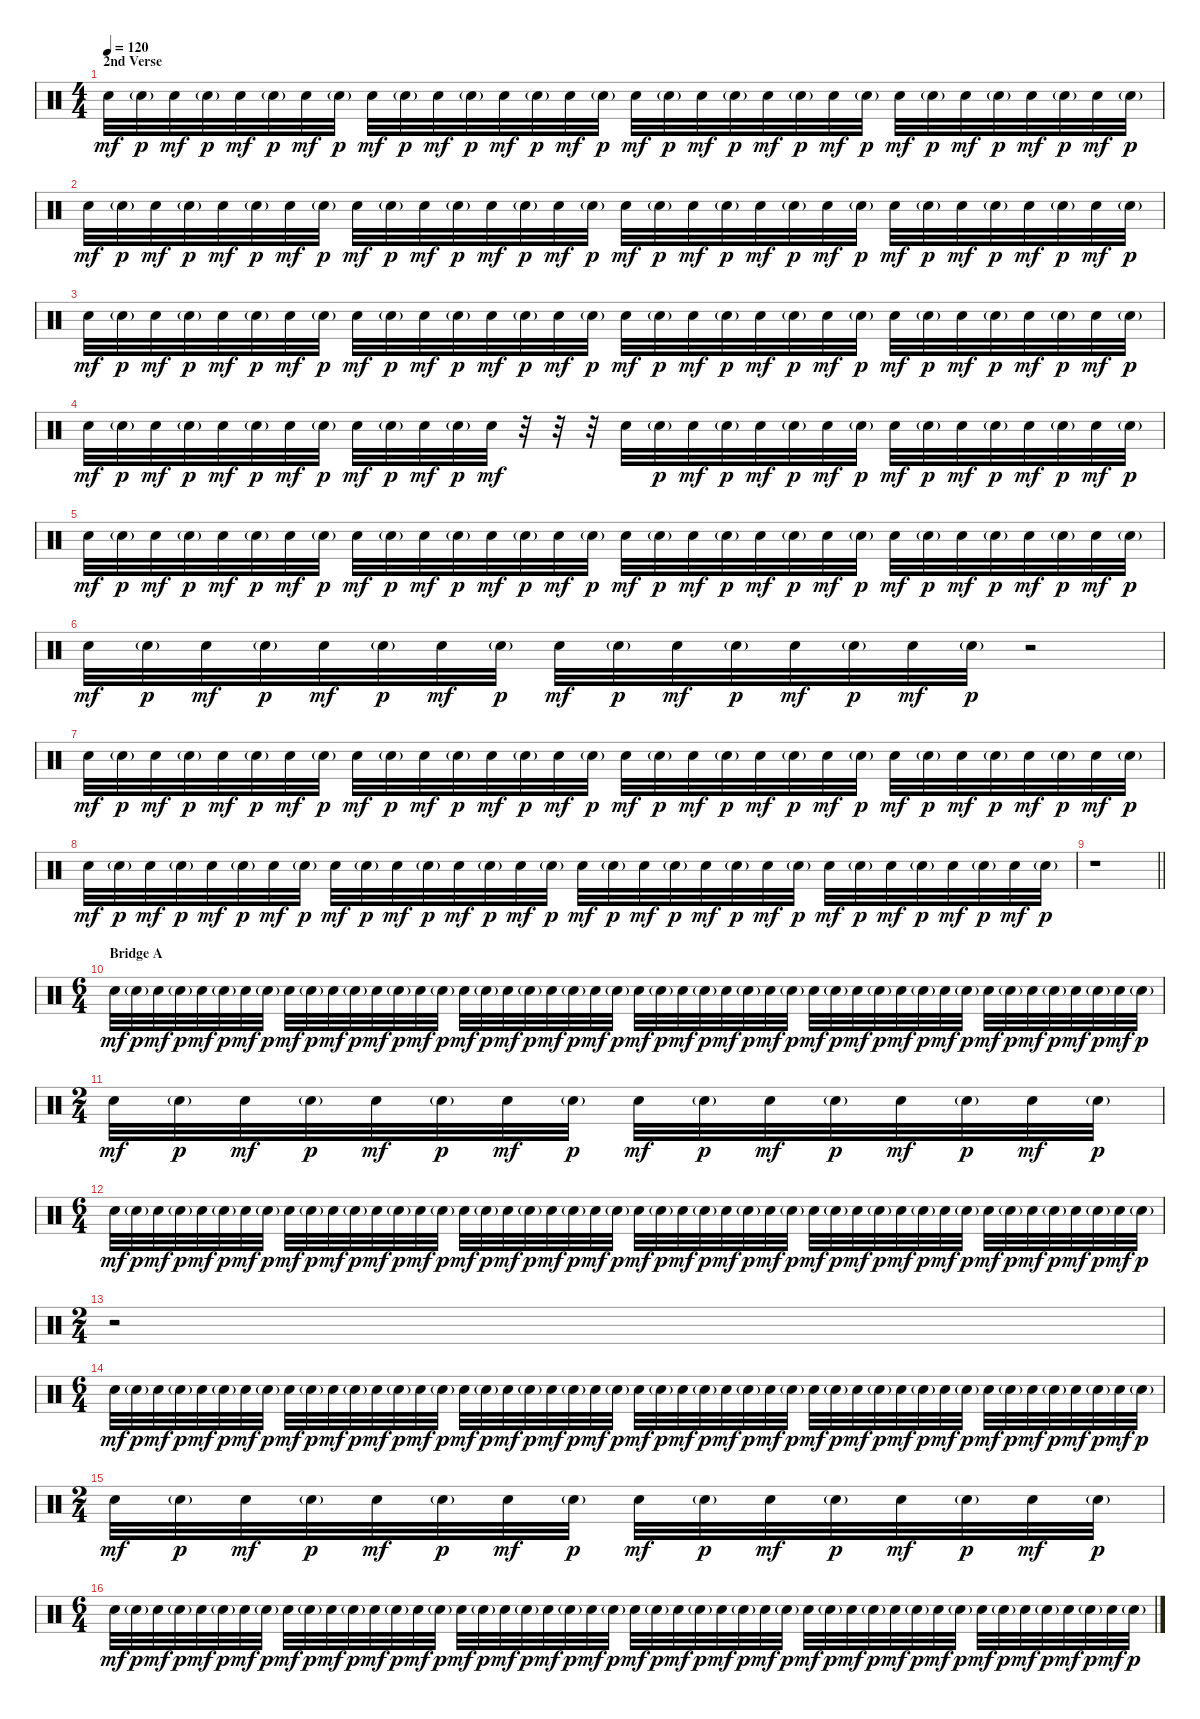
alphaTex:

\track "" {instrument percussion}
\staff {score}
\articulation defaults
\ts (4 4)
\section ("" "2nd Verse")
\tempo 120
\clef neutral
\ks c "Electric Snare (hit)".32{dy mf} "Electric Snare (hit)"{g}.32{dy p} "Electric Snare (hit)".32{dy mf} "Electric Snare (hit)"{g}.32{dy p} "Electric Snare (hit)".32{dy mf} "Electric Snare (hit)"{g}.32{dy p} "Electric Snare (hit)".32{dy mf} "Electric Snare (hit)"{g}.32{dy p} "Electric Snare (hit)".32{dy mf} "Electric Snare (hit)"{g}.32{dy p} "Electric Snare (hit)".32{dy mf} "Electric Snare (hit)"{g}.32{dy p} "Electric Snare (hit)".32{dy mf} "Electric Snare (hit)"{g}.32{dy p} "Electric Snare (hit)".32{dy mf} "Electric Snare (hit)"{g}.32{dy p} "Electric Snare (hit)".32{dy mf} "Electric Snare (hit)"{g}.32{dy p} "Electric Snare (hit)".32{dy mf} "Electric Snare (hit)"{g}.32{dy p} "Electric Snare (hit)".32{dy mf} "Electric Snare (hit)"{g}.32{dy p} "Electric Snare (hit)".32{dy mf} "Electric Snare (hit)"{g}.32{dy p} "Electric Snare (hit)".32{dy mf} "Electric Snare (hit)"{g}.32{dy p} "Electric Snare (hit)".32{dy mf} "Electric Snare (hit)"{g}.32{dy p} "Electric Snare (hit)".32{dy mf} "Electric Snare (hit)"{g}.32{dy p} "Electric Snare (hit)".32{dy mf} "Electric Snare (hit)"{g}.32{dy p}
|
"Electric Snare (hit)".32{dy mf} "Electric Snare (hit)"{g}.32{dy p} "Electric Snare (hit)".32{dy mf} "Electric Snare (hit)"{g}.32{dy p} "Electric Snare (hit)".32{dy mf} "Electric Snare (hit)"{g}.32{dy p} "Electric Snare (hit)".32{dy mf} "Electric Snare (hit)"{g}.32{dy p} "Electric Snare (hit)".32{dy mf} "Electric Snare (hit)"{g}.32{dy p} "Electric Snare (hit)".32{dy mf} "Electric Snare (hit)"{g}.32{dy p} "Electric Snare (hit)".32{dy mf} "Electric Snare (hit)"{g}.32{dy p} "Electric Snare (hit)".32{dy mf} "Electric Snare (hit)"{g}.32{dy p} "Electric Snare (hit)".32{dy mf} "Electric Snare (hit)"{g}.32{dy p} "Electric Snare (hit)".32{dy mf} "Electric Snare (hit)"{g}.32{dy p} "Electric Snare (hit)".32{dy mf} "Electric Snare (hit)"{g}.32{dy p} "Electric Snare (hit)".32{dy mf} "Electric Snare (hit)"{g}.32{dy p} "Electric Snare (hit)".32{dy mf} "Electric Snare (hit)"{g}.32{dy p} "Electric Snare (hit)".32{dy mf} "Electric Snare (hit)"{g}.32{dy p} "Electric Snare (hit)".32{dy mf} "Electric Snare (hit)"{g}.32{dy p} "Electric Snare (hit)".32{dy mf} "Electric Snare (hit)"{g}.32{dy p} |
"Electric Snare (hit)".32{dy mf} "Electric Snare (hit)"{g}.32{dy p} "Electric Snare (hit)".32{dy mf} "Electric Snare (hit)"{g}.32{dy p} "Electric Snare (hit)".32{dy mf} "Electric Snare (hit)"{g}.32{dy p} "Electric Snare (hit)".32{dy mf} "Electric Snare (hit)"{g}.32{dy p} "Electric Snare (hit)".32{dy mf} "Electric Snare (hit)"{g}.32{dy p} "Electric Snare (hit)".32{dy mf} "Electric Snare (hit)"{g}.32{dy p} "Electric Snare (hit)".32{dy mf} "Electric Snare (hit)"{g}.32{dy p} "Electric Snare (hit)".32{dy mf} "Electric Snare (hit)"{g}.32{dy p} "Electric Snare (hit)".32{dy mf} "Electric Snare (hit)"{g}.32{dy p} "Electric Snare (hit)".32{dy mf} "Electric Snare (hit)"{g}.32{dy p} "Electric Snare (hit)".32{dy mf} "Electric Snare (hit)"{g}.32{dy p} "Electric Snare (hit)".32{dy mf} "Electric Snare (hit)"{g}.32{dy p} "Electric Snare (hit)".32{dy mf} "Electric Snare (hit)"{g}.32{dy p} "Electric Snare (hit)".32{dy mf} "Electric Snare (hit)"{g}.32{dy p} "Electric Snare (hit)".32{dy mf} "Electric Snare (hit)"{g}.32{dy p} "Electric Snare (hit)".32{dy mf} "Electric Snare (hit)"{g}.32{dy p} |
"Electric Snare (hit)".32{dy mf} "Electric Snare (hit)"{g}.32{dy p} "Electric Snare (hit)".32{dy mf} "Electric Snare (hit)"{g}.32{dy p} "Electric Snare (hit)".32{dy mf} "Electric Snare (hit)"{g}.32{dy p} "Electric Snare (hit)".32{dy mf} "Electric Snare (hit)"{g}.32{dy p} "Electric Snare (hit)".32{dy mf} "Electric Snare (hit)"{g}.32{dy p} "Electric Snare (hit)".32{dy mf} "Electric Snare (hit)"{g}.32{dy p} "Electric Snare (hit)".32{dy mf} r.32 r.32 r.32 "Electric Snare (hit)".32 "Electric Snare (hit)"{g}.32{dy p} "Electric Snare (hit)".32{dy mf} "Electric Snare (hit)"{g}.32{dy p} "Electric Snare (hit)".32{dy mf} "Electric Snare (hit)"{g}.32{dy p} "Electric Snare (hit)".32{dy mf} "Electric Snare (hit)"{g}.32{dy p} "Electric Snare (hit)".32{dy mf} "Electric Snare (hit)"{g}.32{dy p} "Electric Snare (hit)".32{dy mf} "Electric Snare (hit)"{g}.32{dy p} "Electric Snare (hit)".32{dy mf} "Electric Snare (hit)"{g}.32{dy p} "Electric Snare (hit)".32{dy mf} "Electric Snare (hit)"{g}.32{dy p} |
"Electric Snare (hit)".32{dy mf} "Electric Snare (hit)"{g}.32{dy p} "Electric Snare (hit)".32{dy mf} "Electric Snare (hit)"{g}.32{dy p} "Electric Snare (hit)".32{dy mf} "Electric Snare (hit)"{g}.32{dy p} "Electric Snare (hit)".32{dy mf} "Electric Snare (hit)"{g}.32{dy p} "Electric Snare (hit)".32{dy mf} "Electric Snare (hit)"{g}.32{dy p} "Electric Snare (hit)".32{dy mf} "Electric Snare (hit)"{g}.32{dy p} "Electric Snare (hit)".32{dy mf} "Electric Snare (hit)"{g}.32{dy p} "Electric Snare (hit)".32{dy mf} "Electric Snare (hit)"{g}.32{dy p} "Electric Snare (hit)".32{dy mf} "Electric Snare (hit)"{g}.32{dy p} "Electric Snare (hit)".32{dy mf} "Electric Snare (hit)"{g}.32{dy p} "Electric Snare (hit)".32{dy mf} "Electric Snare (hit)"{g}.32{dy p} "Electric Snare (hit)".32{dy mf} "Electric Snare (hit)"{g}.32{dy p} "Electric Snare (hit)".32{dy mf} "Electric Snare (hit)"{g}.32{dy p} "Electric Snare (hit)".32{dy mf} "Electric Snare (hit)"{g}.32{dy p} "Electric Snare (hit)".32{dy mf} "Electric Snare (hit)"{g}.32{dy p} "Electric Snare (hit)".32{dy mf} "Electric Snare (hit)"{g}.32{dy p} |
"Electric Snare (hit)".32{dy mf} "Electric Snare (hit)"{g}.32{dy p} "Electric Snare (hit)".32{dy mf} "Electric Snare (hit)"{g}.32{dy p} "Electric Snare (hit)".32{dy mf} "Electric Snare (hit)"{g}.32{dy p} "Electric Snare (hit)".32{dy mf} "Electric Snare (hit)"{g}.32{dy p} "Electric Snare (hit)".32{dy mf} "Electric Snare (hit)"{g}.32{dy p} "Electric Snare (hit)".32{dy mf} "Electric Snare (hit)"{g}.32{dy p} "Electric Snare (hit)".32{dy mf} "Electric Snare (hit)"{g}.32{dy p} "Electric Snare (hit)".32{dy mf} "Electric Snare (hit)"{g}.32{dy p} r.2 |
"Electric Snare (hit)".32{dy mf} "Electric Snare (hit)"{g}.32{dy p} "Electric Snare (hit)".32{dy mf} "Electric Snare (hit)"{g}.32{dy p} "Electric Snare (hit)".32{dy mf} "Electric Snare (hit)"{g}.32{dy p} "Electric Snare (hit)".32{dy mf} "Electric Snare (hit)"{g}.32{dy p} "Electric Snare (hit)".32{dy mf} "Electric Snare (hit)"{g}.32{dy p} "Electric Snare (hit)".32{dy mf} "Electric Snare (hit)"{g}.32{dy p} "Electric Snare (hit)".32{dy mf} "Electric Snare (hit)"{g}.32{dy p} "Electric Snare (hit)".32{dy mf} "Electric Snare (hit)"{g}.32{dy p} "Electric Snare (hit)".32{dy mf} "Electric Snare (hit)"{g}.32{dy p} "Electric Snare (hit)".32{dy mf} "Electric Snare (hit)"{g}.32{dy p} "Electric Snare (hit)".32{dy mf} "Electric Snare (hit)"{g}.32{dy p} "Electric Snare (hit)".32{dy mf} "Electric Snare (hit)"{g}.32{dy p} "Electric Snare (hit)".32{dy mf} "Electric Snare (hit)"{g}.32{dy p} "Electric Snare (hit)".32{dy mf} "Electric Snare (hit)"{g}.32{dy p} "Electric Snare (hit)".32{dy mf} "Electric Snare (hit)"{g}.32{dy p} "Electric Snare (hit)".32{dy mf} "Electric Snare (hit)"{g}.32{dy p} |
"Electric Snare (hit)".32{dy mf} "Electric Snare (hit)"{g}.32{dy p} "Electric Snare (hit)".32{dy mf} "Electric Snare (hit)"{g}.32{dy p} "Electric Snare (hit)".32{dy mf} "Electric Snare (hit)"{g}.32{dy p} "Electric Snare (hit)".32{dy mf} "Electric Snare (hit)"{g}.32{dy p} "Electric Snare (hit)".32{dy mf} "Electric Snare (hit)"{g}.32{dy p} "Electric Snare (hit)".32{dy mf} "Electric Snare (hit)"{g}.32{dy p} "Electric Snare (hit)".32{dy mf} "Electric Snare (hit)"{g}.32{dy p} "Electric Snare (hit)".32{dy mf} "Electric Snare (hit)"{g}.32{dy p} "Electric Snare (hit)".32{dy mf} "Electric Snare (hit)"{g}.32{dy p} "Electric Snare (hit)".32{dy mf} "Electric Snare (hit)"{g}.32{dy p} "Electric Snare (hit)".32{dy mf} "Electric Snare (hit)"{g}.32{dy p} "Electric Snare (hit)".32{dy mf} "Electric Snare (hit)"{g}.32{dy p} "Electric Snare (hit)".32{dy mf} "Electric Snare (hit)"{g}.32{dy p} "Electric Snare (hit)".32{dy mf} "Electric Snare (hit)"{g}.32{dy p} "Electric Snare (hit)".32{dy mf} "Electric Snare (hit)"{g}.32{dy p} "Electric Snare (hit)".32{dy mf} "Electric Snare (hit)"{g}.32{dy p} |
\barLineRight lightlight
r.1 |
\ts (6 4)
\section ("" "Bridge A")
"Electric Snare (hit)".32{dy mf} "Electric Snare (hit)"{g}.32{dy p} "Electric Snare (hit)".32{dy mf} "Electric Snare (hit)"{g}.32{dy p} "Electric Snare (hit)".32{dy mf} "Electric Snare (hit)"{g}.32{dy p} "Electric Snare (hit)".32{dy mf} "Electric Snare (hit)"{g}.32{dy p} "Electric Snare (hit)".32{dy mf} "Electric Snare (hit)"{g}.32{dy p} "Electric Snare (hit)".32{dy mf} "Electric Snare (hit)"{g}.32{dy p} "Electric Snare (hit)".32{dy mf} "Electric Snare (hit)"{g}.32{dy p} "Electric Snare (hit)".32{dy mf} "Electric Snare (hit)"{g}.32{dy p} "Electric Snare (hit)".32{dy mf} "Electric Snare (hit)"{g}.32{dy p} "Electric Snare (hit)".32{dy mf} "Electric Snare (hit)"{g}.32{dy p} "Electric Snare (hit)".32{dy mf} "Electric Snare (hit)"{g}.32{dy p} "Electric Snare (hit)".32{dy mf} "Electric Snare (hit)"{g}.32{dy p} "Electric Snare (hit)".32{dy mf} "Electric Snare (hit)"{g}.32{dy p} "Electric Snare (hit)".32{dy mf} "Electric Snare (hit)"{g}.32{dy p} "Electric Snare (hit)".32{dy mf} "Electric Snare (hit)"{g}.32{dy p} "Electric Snare (hit)".32{dy mf} "Electric Snare (hit)"{g}.32{dy p} "Electric Snare (hit)".32{dy mf} "Electric Snare (hit)"{g}.32{dy p} "Electric Snare (hit)".32{dy mf} "Electric Snare (hit)"{g}.32{dy p} "Electric Snare (hit)".32{dy mf} "Electric Snare (hit)"{g}.32{dy p} "Electric Snare (hit)".32{dy mf} "Electric Snare (hit)"{g}.32{dy p} "Electric Snare (hit)".32{dy mf} "Electric Snare (hit)"{g}.32{dy p} "Electric Snare (hit)".32{dy mf} "Electric Snare (hit)"{g}.32{dy p} "Electric Snare (hit)".32{dy mf} "Electric Snare (hit)"{g}.32{dy p} "Electric Snare (hit)".32{dy mf} "Electric Snare (hit)"{g}.32{dy p} |
\ts (2 4)
"Electric Snare (hit)".32{dy mf} "Electric Snare (hit)"{g}.32{dy p} "Electric Snare (hit)".32{dy mf} "Electric Snare (hit)"{g}.32{dy p} "Electric Snare (hit)".32{dy mf} "Electric Snare (hit)"{g}.32{dy p} "Electric Snare (hit)".32{dy mf} "Electric Snare (hit)"{g}.32{dy p} "Electric Snare (hit)".32{dy mf} "Electric Snare (hit)"{g}.32{dy p} "Electric Snare (hit)".32{dy mf} "Electric Snare (hit)"{g}.32{dy p} "Electric Snare (hit)".32{dy mf} "Electric Snare (hit)"{g}.32{dy p} "Electric Snare (hit)".32{dy mf} "Electric Snare (hit)"{g}.32{dy p} |
\ts (6 4)
"Electric Snare (hit)".32{dy mf} "Electric Snare (hit)"{g}.32{dy p} "Electric Snare (hit)".32{dy mf} "Electric Snare (hit)"{g}.32{dy p} "Electric Snare (hit)".32{dy mf} "Electric Snare (hit)"{g}.32{dy p} "Electric Snare (hit)".32{dy mf} "Electric Snare (hit)"{g}.32{dy p} "Electric Snare (hit)".32{dy mf} "Electric Snare (hit)"{g}.32{dy p} "Electric Snare (hit)".32{dy mf} "Electric Snare (hit)"{g}.32{dy p} "Electric Snare (hit)".32{dy mf} "Electric Snare (hit)"{g}.32{dy p} "Electric Snare (hit)".32{dy mf} "Electric Snare (hit)"{g}.32{dy p} "Electric Snare (hit)".32{dy mf} "Electric Snare (hit)"{g}.32{dy p} "Electric Snare (hit)".32{dy mf} "Electric Snare (hit)"{g}.32{dy p} "Electric Snare (hit)".32{dy mf} "Electric Snare (hit)"{g}.32{dy p} "Electric Snare (hit)".32{dy mf} "Electric Snare (hit)"{g}.32{dy p} "Electric Snare (hit)".32{dy mf} "Electric Snare (hit)"{g}.32{dy p} "Electric Snare (hit)".32{dy mf} "Electric Snare (hit)"{g}.32{dy p} "Electric Snare (hit)".32{dy mf} "Electric Snare (hit)"{g}.32{dy p} "Electric Snare (hit)".32{dy mf} "Electric Snare (hit)"{g}.32{dy p} "Electric Snare (hit)".32{dy mf} "Electric Snare (hit)"{g}.32{dy p} "Electric Snare (hit)".32{dy mf} "Electric Snare (hit)"{g}.32{dy p} "Electric Snare (hit)".32{dy mf} "Electric Snare (hit)"{g}.32{dy p} "Electric Snare (hit)".32{dy mf} "Electric Snare (hit)"{g}.32{dy p} "Electric Snare (hit)".32{dy mf} "Electric Snare (hit)"{g}.32{dy p} "Electric Snare (hit)".32{dy mf} "Electric Snare (hit)"{g}.32{dy p} "Electric Snare (hit)".32{dy mf} "Electric Snare (hit)"{g}.32{dy p} "Electric Snare (hit)".32{dy mf} "Electric Snare (hit)"{g}.32{dy p} |
\ts (2 4)
r.2 |
\ts (6 4)
"Electric Snare (hit)".32{dy mf} "Electric Snare (hit)"{g}.32{dy p} "Electric Snare (hit)".32{dy mf} "Electric Snare (hit)"{g}.32{dy p} "Electric Snare (hit)".32{dy mf} "Electric Snare (hit)"{g}.32{dy p} "Electric Snare (hit)".32{dy mf} "Electric Snare (hit)"{g}.32{dy p} "Electric Snare (hit)".32{dy mf} "Electric Snare (hit)"{g}.32{dy p} "Electric Snare (hit)".32{dy mf} "Electric Snare (hit)"{g}.32{dy p} "Electric Snare (hit)".32{dy mf} "Electric Snare (hit)"{g}.32{dy p} "Electric Snare (hit)".32{dy mf} "Electric Snare (hit)"{g}.32{dy p} "Electric Snare (hit)".32{dy mf} "Electric Snare (hit)"{g}.32{dy p} "Electric Snare (hit)".32{dy mf} "Electric Snare (hit)"{g}.32{dy p} "Electric Snare (hit)".32{dy mf} "Electric Snare (hit)"{g}.32{dy p} "Electric Snare (hit)".32{dy mf} "Electric Snare (hit)"{g}.32{dy p} "Electric Snare (hit)".32{dy mf} "Electric Snare (hit)"{g}.32{dy p} "Electric Snare (hit)".32{dy mf} "Electric Snare (hit)"{g}.32{dy p} "Electric Snare (hit)".32{dy mf} "Electric Snare (hit)"{g}.32{dy p} "Electric Snare (hit)".32{dy mf} "Electric Snare (hit)"{g}.32{dy p} "Electric Snare (hit)".32{dy mf} "Electric Snare (hit)"{g}.32{dy p} "Electric Snare (hit)".32{dy mf} "Electric Snare (hit)"{g}.32{dy p} "Electric Snare (hit)".32{dy mf} "Electric Snare (hit)"{g}.32{dy p} "Electric Snare (hit)".32{dy mf} "Electric Snare (hit)"{g}.32{dy p} "Electric Snare (hit)".32{dy mf} "Electric Snare (hit)"{g}.32{dy p} "Electric Snare (hit)".32{dy mf} "Electric Snare (hit)"{g}.32{dy p} "Electric Snare (hit)".32{dy mf} "Electric Snare (hit)"{g}.32{dy p} "Electric Snare (hit)".32{dy mf} "Electric Snare (hit)"{g}.32{dy p} |
\ts (2 4)
"Electric Snare (hit)".32{dy mf} "Electric Snare (hit)"{g}.32{dy p} "Electric Snare (hit)".32{dy mf} "Electric Snare (hit)"{g}.32{dy p} "Electric Snare (hit)".32{dy mf} "Electric Snare (hit)"{g}.32{dy p} "Electric Snare (hit)".32{dy mf} "Electric Snare (hit)"{g}.32{dy p} "Electric Snare (hit)".32{dy mf} "Electric Snare (hit)"{g}.32{dy p} "Electric Snare (hit)".32{dy mf} "Electric Snare (hit)"{g}.32{dy p} "Electric Snare (hit)".32{dy mf} "Electric Snare (hit)"{g}.32{dy p} "Electric Snare (hit)".32{dy mf} "Electric Snare (hit)"{g}.32{dy p} |
\ts (6 4)
"Electric Snare (hit)".32{dy mf} "Electric Snare (hit)"{g}.32{dy p} "Electric Snare (hit)".32{dy mf} "Electric Snare (hit)"{g}.32{dy p} "Electric Snare (hit)".32{dy mf} "Electric Snare (hit)"{g}.32{dy p} "Electric Snare (hit)".32{dy mf} "Electric Snare (hit)"{g}.32{dy p} "Electric Snare (hit)".32{dy mf} "Electric Snare (hit)"{g}.32{dy p} "Electric Snare (hit)".32{dy mf} "Electric Snare (hit)"{g}.32{dy p} "Electric Snare (hit)".32{dy mf} "Electric Snare (hit)"{g}.32{dy p} "Electric Snare (hit)".32{dy mf} "Electric Snare (hit)"{g}.32{dy p} "Electric Snare (hit)".32{dy mf} "Electric Snare (hit)"{g}.32{dy p} "Electric Snare (hit)".32{dy mf} "Electric Snare (hit)"{g}.32{dy p} "Electric Snare (hit)".32{dy mf} "Electric Snare (hit)"{g}.32{dy p} "Electric Snare (hit)".32{dy mf} "Electric Snare (hit)"{g}.32{dy p} "Electric Snare (hit)".32{dy mf} "Electric Snare (hit)"{g}.32{dy p} "Electric Snare (hit)".32{dy mf} "Electric Snare (hit)"{g}.32{dy p} "Electric Snare (hit)".32{dy mf} "Electric Snare (hit)"{g}.32{dy p} "Electric Snare (hit)".32{dy mf} "Electric Snare (hit)"{g}.32{dy p} "Electric Snare (hit)".32{dy mf} "Electric Snare (hit)"{g}.32{dy p} "Electric Snare (hit)".32{dy mf} "Electric Snare (hit)"{g}.32{dy p} "Electric Snare (hit)".32{dy mf} "Electric Snare (hit)"{g}.32{dy p} "Electric Snare (hit)".32{dy mf} "Electric Snare (hit)"{g}.32{dy p} "Electric Snare (hit)".32{dy mf} "Electric Snare (hit)"{g}.32{dy p} "Electric Snare (hit)".32{dy mf} "Electric Snare (hit)"{g}.32{dy p} "Electric Snare (hit)".32{dy mf} "Electric Snare (hit)"{g}.32{dy p} "Electric Snare (hit)".32{dy mf} "Electric Snare (hit)"{g}.32{dy p}
